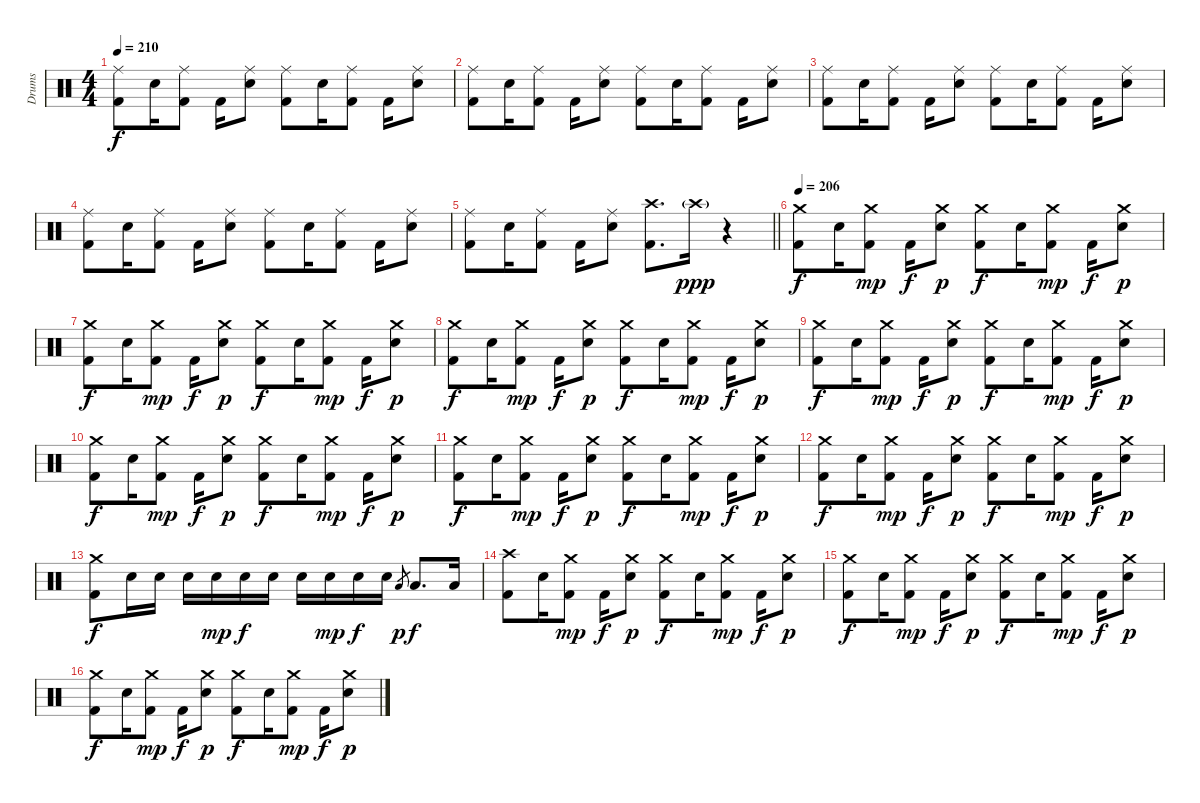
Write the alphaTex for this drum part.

\track ("Drums" "Drums") {instrument percussion}
\staff {score}
\articulation defaults
\ts (4 4)
\tempo 210
\clef neutral
\ks c
("Ride (middle)" "Kick (hit) 2").8{dy f} "Electric Snare (hit)".16 ("Ride (middle)" "Kick (hit) 2").8 "Kick (hit) 2".16 ("Ride (middle)" "Electric Snare (hit)").8 ("Ride (middle)" "Kick (hit) 2").8 "Electric Snare (hit)".16 ("Ride (middle)" "Kick (hit) 2").8 "Kick (hit) 2".16 ("Ride (middle)" "Electric Snare (hit)").8 |
("Ride (middle)" "Kick (hit) 2").8 "Electric Snare (hit)".16 ("Ride (middle)" "Kick (hit) 2").8 "Kick (hit) 2".16 ("Ride (middle)" "Electric Snare (hit)").8 ("Ride (middle)" "Kick (hit) 2").8 "Electric Snare (hit)".16 ("Ride (middle)" "Kick (hit) 2").8 "Kick (hit) 2".16 ("Ride (middle)" "Electric Snare (hit)").8 |
("Ride (middle)" "Kick (hit) 2").8 "Electric Snare (hit)".16 ("Ride (middle)" "Kick (hit) 2").8 "Kick (hit) 2".16 ("Ride (middle)" "Electric Snare (hit)").8 ("Ride (middle)" "Kick (hit) 2").8 "Electric Snare (hit)".16 ("Ride (middle)" "Kick (hit) 2").8 "Kick (hit) 2".16 ("Ride (middle)" "Electric Snare (hit)").8 |
("Ride (middle)" "Kick (hit) 2").8 "Electric Snare (hit)".16 ("Ride (middle)" "Kick (hit) 2").8 "Kick (hit) 2".16 ("Ride (middle)" "Electric Snare (hit)").8 ("Ride (middle)" "Kick (hit) 2").8 "Electric Snare (hit)".16 ("Ride (middle)" "Kick (hit) 2").8 "Kick (hit) 2".16 ("Ride (middle)" "Electric Snare (hit)").8 |
\barLineRight lightlight
("Ride (middle)" "Kick (hit) 2").8 "Electric Snare (hit)".16 ("Ride (middle)" "Kick (hit) 2").8 "Kick (hit) 2".16 ("Ride (middle)" "Electric Snare (hit)").8 ("Crash high (hit)" "Kick (hit) 2").8{d} "Crash high (hit)"{g}.16{dy ppp} r.4 |
\section ("" "")
\tempo 206
("Crash medium (hit)" "Kick (hit) 2").8{dy f} "Electric Snare (hit)".16 ("Crash medium (hit)" "Kick (hit) 2").8{dy mp} "Kick (hit) 2".16{dy f} ("Crash medium (hit)" "Electric Snare (hit)").8{dy p} ("Crash medium (hit)" "Kick (hit) 2").8{dy f} "Electric Snare (hit)".16 ("Crash medium (hit)" "Kick (hit) 2").8{dy mp} "Kick (hit) 2".16{dy f} ("Crash medium (hit)" "Electric Snare (hit)").8{dy p} |
("Crash medium (hit)" "Kick (hit) 2").8{dy f} "Electric Snare (hit)".16 ("Crash medium (hit)" "Kick (hit) 2").8{dy mp} "Kick (hit) 2".16{dy f} ("Crash medium (hit)" "Electric Snare (hit)").8{dy p} ("Crash medium (hit)" "Kick (hit) 2").8{dy f} "Electric Snare (hit)".16 ("Crash medium (hit)" "Kick (hit) 2").8{dy mp} "Kick (hit) 2".16{dy f} ("Crash medium (hit)" "Electric Snare (hit)").8{dy p} |
("Crash medium (hit)" "Kick (hit) 2").8{dy f} "Electric Snare (hit)".16 ("Crash medium (hit)" "Kick (hit) 2").8{dy mp} "Kick (hit) 2".16{dy f} ("Crash medium (hit)" "Electric Snare (hit)").8{dy p} ("Crash medium (hit)" "Kick (hit) 2").8{dy f} "Electric Snare (hit)".16 ("Crash medium (hit)" "Kick (hit) 2").8{dy mp} "Kick (hit) 2".16{dy f} ("Crash medium (hit)" "Electric Snare (hit)").8{dy p} |
("Crash medium (hit)" "Kick (hit) 2").8{dy f} "Electric Snare (hit)".16 ("Crash medium (hit)" "Kick (hit) 2").8{dy mp} "Kick (hit) 2".16{dy f} ("Crash medium (hit)" "Electric Snare (hit)").8{dy p} ("Crash medium (hit)" "Kick (hit) 2").8{dy f} "Electric Snare (hit)".16 ("Crash medium (hit)" "Kick (hit) 2").8{dy mp} "Kick (hit) 2".16{dy f} ("Crash medium (hit)" "Electric Snare (hit)").8{dy p} |
("Crash medium (hit)" "Kick (hit) 2").8{dy f} "Electric Snare (hit)".16 ("Crash medium (hit)" "Kick (hit) 2").8{dy mp} "Kick (hit) 2".16{dy f} ("Crash medium (hit)" "Electric Snare (hit)").8{dy p} ("Crash medium (hit)" "Kick (hit) 2").8{dy f} "Electric Snare (hit)".16 ("Crash medium (hit)" "Kick (hit) 2").8{dy mp} "Kick (hit) 2".16{dy f} ("Crash medium (hit)" "Electric Snare (hit)").8{dy p} |
("Crash medium (hit)" "Kick (hit) 2").8{dy f} "Electric Snare (hit)".16 ("Crash medium (hit)" "Kick (hit) 2").8{dy mp} "Kick (hit) 2".16{dy f} ("Crash medium (hit)" "Electric Snare (hit)").8{dy p} ("Crash medium (hit)" "Kick (hit) 2").8{dy f} "Electric Snare (hit)".16 ("Crash medium (hit)" "Kick (hit) 2").8{dy mp} "Kick (hit) 2".16{dy f} ("Crash medium (hit)" "Electric Snare (hit)").8{dy p} |
("Crash medium (hit)" "Kick (hit) 2").8{dy f} "Electric Snare (hit)".16 ("Crash medium (hit)" "Kick (hit) 2").8{dy mp} "Kick (hit) 2".16{dy f} ("Crash medium (hit)" "Electric Snare (hit)").8{dy p} ("Crash medium (hit)" "Kick (hit) 2").8{dy f} "Electric Snare (hit)".16 ("Crash medium (hit)" "Kick (hit) 2").8{dy mp} "Kick (hit) 2".16{dy f} ("Crash medium (hit)" "Electric Snare (hit)").8{dy p} |
("Crash medium (hit)" "Kick (hit) 2").8{dy f} "Electric Snare (hit)".16 "Electric Snare (hit)".16 "Electric Snare (hit)".16 "Electric Snare (hit)".16{dy mp} "Electric Snare (hit)".16{dy f} "Electric Snare (hit)".16 "Electric Snare (hit)".16 "Electric Snare (hit)".16{dy mp} "Electric Snare (hit)".16{dy f} "Electric Snare (hit)".16 "Low Tom (hit)".8{gr dy p} "Low Tom (hit)".8{d dy f} "Low Tom (hit)".16 |
("Crash high (hit)" "Kick (hit) 2").8 "Electric Snare (hit)".16 ("Crash medium (hit)" "Kick (hit) 2").8{dy mp} "Kick (hit) 2".16{dy f} ("Crash medium (hit)" "Electric Snare (hit)").8{dy p} ("Crash medium (hit)" "Kick (hit) 2").8{dy f} "Electric Snare (hit)".16 ("Crash medium (hit)" "Kick (hit) 2").8{dy mp} "Kick (hit) 2".16{dy f} ("Crash medium (hit)" "Electric Snare (hit)").8{dy p} |
("Crash medium (hit)" "Kick (hit) 2").8{dy f} "Electric Snare (hit)".16 ("Crash medium (hit)" "Kick (hit) 2").8{dy mp} "Kick (hit) 2".16{dy f} ("Crash medium (hit)" "Electric Snare (hit)").8{dy p} ("Crash medium (hit)" "Kick (hit) 2").8{dy f} "Electric Snare (hit)".16 ("Crash medium (hit)" "Kick (hit) 2").8{dy mp} "Kick (hit) 2".16{dy f} ("Crash medium (hit)" "Electric Snare (hit)").8{dy p} |
("Crash medium (hit)" "Kick (hit) 2").8{dy f} "Electric Snare (hit)".16 ("Crash medium (hit)" "Kick (hit) 2").8{dy mp} "Kick (hit) 2".16{dy f} ("Crash medium (hit)" "Electric Snare (hit)").8{dy p} ("Crash medium (hit)" "Kick (hit) 2").8{dy f} "Electric Snare (hit)".16 ("Crash medium (hit)" "Kick (hit) 2").8{dy mp} "Kick (hit) 2".16{dy f} ("Crash medium (hit)" "Electric Snare (hit)").8{dy p}
